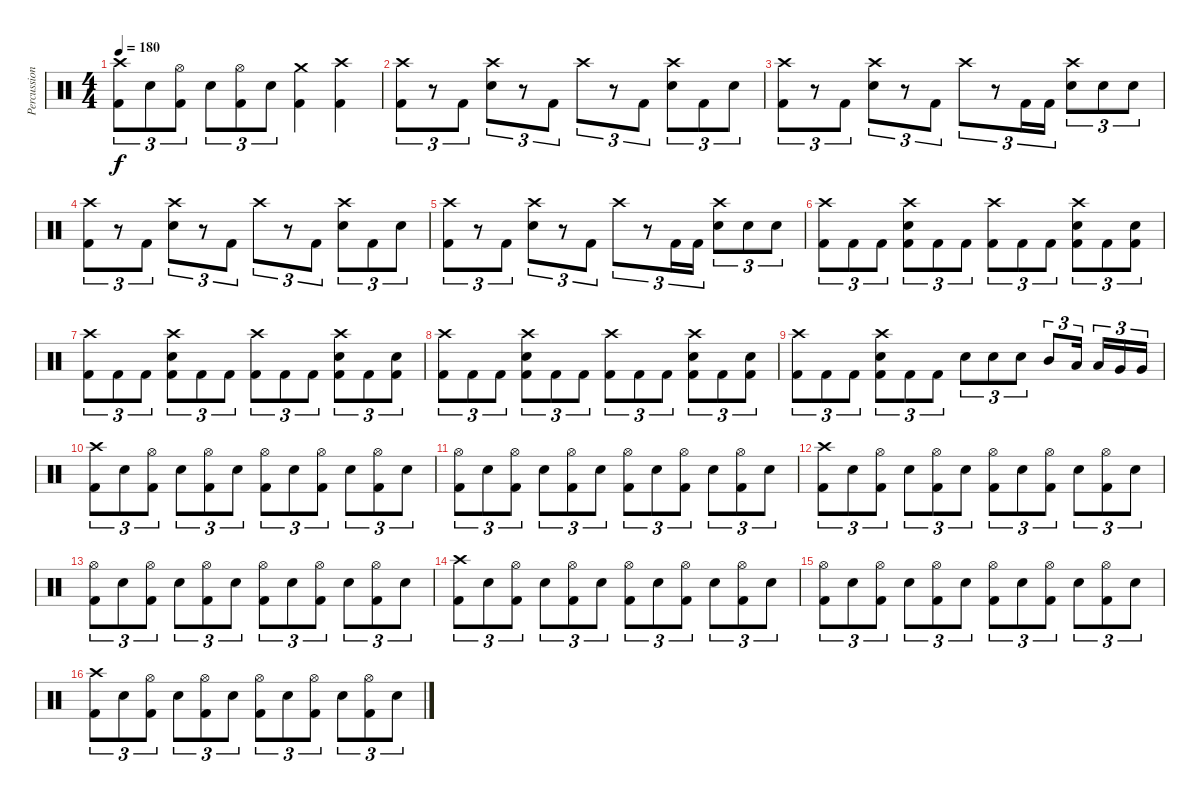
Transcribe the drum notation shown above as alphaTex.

\track ("Percussion" "Percussion") {instrument percussion}
\staff {score}
\articulation defaults
\ts (4 4)
\tempo 180
\clef neutral
\ks c
("Crash high (hit)" "Kick (hit) 2").8{tu (3 2) dy f} "Electric Snare (hit)".8{tu (3 2)} ("Hi-Hat (open)" "Kick (hit) 2").8{tu (3 2)} "Electric Snare (hit)".8{tu (3 2)} ("Hi-Hat (open)" "Kick (hit) 2").8{tu (3 2)} "Electric Snare (hit)".8{tu (3 2)} ("Crash medium (hit)" "Kick (hit) 2").4 ("Crash high (hit)" "Kick (hit) 2").4 |
("Crash high (hit)" "Kick (hit) 2").8{tu (3 2)} r.8{tu (3 2)} "Kick (hit) 2".8{tu (3 2)} ("Crash high (hit)" "Electric Snare (hit)").8{tu (3 2)} r.8{tu (3 2)} "Kick (hit) 2".8{tu (3 2)} "Crash high (hit)".8{tu (3 2)} r.8{tu (3 2)} "Kick (hit) 2".8{tu (3 2)} ("Crash high (hit)" "Electric Snare (hit)").8{tu (3 2)} "Kick (hit) 2".8{tu (3 2)} "Electric Snare (hit)".8{tu (3 2)} |
("Crash high (hit)" "Kick (hit) 2").8{tu (3 2)} r.8{tu (3 2)} "Kick (hit) 2".8{tu (3 2)} ("Crash high (hit)" "Electric Snare (hit)").8{tu (3 2)} r.8{tu (3 2)} "Kick (hit) 2".8{tu (3 2)} "Crash high (hit)".8{tu (3 2)} r.8{tu (3 2)} "Kick (hit) 2".16{tu (3 2)} "Kick (hit) 2".16{tu (3 2)} ("Crash high (hit)" "Electric Snare (hit)").8{tu (3 2)} "Electric Snare (hit)".8{tu (3 2)} "Electric Snare (hit)".8{tu (3 2)} |
("Crash high (hit)" "Kick (hit) 2").8{tu (3 2)} r.8{tu (3 2)} "Kick (hit) 2".8{tu (3 2)} ("Crash high (hit)" "Electric Snare (hit)").8{tu (3 2)} r.8{tu (3 2)} "Kick (hit) 2".8{tu (3 2)} "Crash high (hit)".8{tu (3 2)} r.8{tu (3 2)} "Kick (hit) 2".8{tu (3 2)} ("Crash high (hit)" "Electric Snare (hit)").8{tu (3 2)} "Kick (hit) 2".8{tu (3 2)} "Electric Snare (hit)".8{tu (3 2)} |
("Crash high (hit)" "Kick (hit) 2").8{tu (3 2)} r.8{tu (3 2)} "Kick (hit) 2".8{tu (3 2)} ("Crash high (hit)" "Electric Snare (hit)").8{tu (3 2)} r.8{tu (3 2)} "Kick (hit) 2".8{tu (3 2)} "Crash high (hit)".8{tu (3 2)} r.8{tu (3 2)} "Kick (hit) 2".16{tu (3 2)} "Kick (hit) 2".16{tu (3 2)} ("Crash high (hit)" "Electric Snare (hit)").8{tu (3 2)} "Electric Snare (hit)".8{tu (3 2)} "Electric Snare (hit)".8{tu (3 2)} |
("Crash high (hit)" "Kick (hit) 2").8{tu (3 2)} "Kick (hit) 2".8{tu (3 2)} "Kick (hit) 2".8{tu (3 2)} ("Crash high (hit)" "Electric Snare (hit)" "Kick (hit) 2").8{tu (3 2)} "Kick (hit) 2".8{tu (3 2)} "Kick (hit) 2".8{tu (3 2)} ("Crash high (hit)" "Kick (hit) 2").8{tu (3 2)} "Kick (hit) 2".8{tu (3 2)} "Kick (hit) 2".8{tu (3 2)} ("Crash high (hit)" "Electric Snare (hit)" "Kick (hit) 2").8{tu (3 2)} "Kick (hit) 2".8{tu (3 2)} ("Electric Snare (hit)" "Kick (hit) 2").8{tu (3 2)} |
("Crash high (hit)" "Kick (hit) 2").8{tu (3 2)} "Kick (hit) 2".8{tu (3 2)} "Kick (hit) 2".8{tu (3 2)} ("Crash high (hit)" "Electric Snare (hit)" "Kick (hit) 2").8{tu (3 2)} "Kick (hit) 2".8{tu (3 2)} "Kick (hit) 2".8{tu (3 2)} ("Crash high (hit)" "Kick (hit) 2").8{tu (3 2)} "Kick (hit) 2".8{tu (3 2)} "Kick (hit) 2".8{tu (3 2)} ("Crash high (hit)" "Electric Snare (hit)" "Kick (hit) 2").8{tu (3 2)} "Kick (hit) 2".8{tu (3 2)} ("Electric Snare (hit)" "Kick (hit) 2").8{tu (3 2)} |
("Crash high (hit)" "Kick (hit) 2").8{tu (3 2)} "Kick (hit) 2".8{tu (3 2)} "Kick (hit) 2".8{tu (3 2)} ("Crash high (hit)" "Electric Snare (hit)" "Kick (hit) 2").8{tu (3 2)} "Kick (hit) 2".8{tu (3 2)} "Kick (hit) 2".8{tu (3 2)} ("Crash high (hit)" "Kick (hit) 2").8{tu (3 2)} "Kick (hit) 2".8{tu (3 2)} "Kick (hit) 2".8{tu (3 2)} ("Crash high (hit)" "Electric Snare (hit)" "Kick (hit) 2").8{tu (3 2)} "Kick (hit) 2".8{tu (3 2)} ("Electric Snare (hit)" "Kick (hit) 2").8{tu (3 2)} |
("Crash high (hit)" "Kick (hit) 2").8{tu (3 2)} "Kick (hit) 2".8{tu (3 2)} "Kick (hit) 2".8{tu (3 2)} ("Crash high (hit)" "Electric Snare (hit)" "Kick (hit) 2").8{tu (3 2)} "Kick (hit) 2".8{tu (3 2)} "Kick (hit) 2".8{tu (3 2)} "Electric Snare (hit)".8{tu (3 2)} "Electric Snare (hit)".8{tu (3 2)} "Electric Snare (hit)".8{tu (3 2)} "Mid Tom (hit)".8{tu (3 2)} "Low Tom (hit)".16{tu (3 2)} "Low Tom (hit)".16{tu (3 2)} "Very Low Tom (hit)".16{tu (3 2)} "Very Low Tom (hit)".16{tu (3 2)} |
("Crash high (hit)" "Kick (hit) 2").8{tu (3 2)} "Electric Snare (hit)".8{tu (3 2)} ("Hi-Hat (open)" "Kick (hit) 2").8{tu (3 2)} "Electric Snare (hit)".8{tu (3 2)} ("Hi-Hat (open)" "Kick (hit) 2").8{tu (3 2)} "Electric Snare (hit)".8{tu (3 2)} ("Hi-Hat (open)" "Kick (hit) 2").8{tu (3 2)} "Electric Snare (hit)".8{tu (3 2)} ("Hi-Hat (open)" "Kick (hit) 2").8{tu (3 2)} "Electric Snare (hit)".8{tu (3 2)} ("Hi-Hat (open)" "Kick (hit) 2").8{tu (3 2)} "Electric Snare (hit)".8{tu (3 2)} |
("Hi-Hat (open)" "Kick (hit) 2").8{tu (3 2)} "Electric Snare (hit)".8{tu (3 2)} ("Hi-Hat (open)" "Kick (hit) 2").8{tu (3 2)} "Electric Snare (hit)".8{tu (3 2)} ("Hi-Hat (open)" "Kick (hit) 2").8{tu (3 2)} "Electric Snare (hit)".8{tu (3 2)} ("Hi-Hat (open)" "Kick (hit) 2").8{tu (3 2)} "Electric Snare (hit)".8{tu (3 2)} ("Hi-Hat (open)" "Kick (hit) 2").8{tu (3 2)} "Electric Snare (hit)".8{tu (3 2)} ("Hi-Hat (open)" "Kick (hit) 2").8{tu (3 2)} "Electric Snare (hit)".8{tu (3 2)} |
("Crash high (hit)" "Kick (hit) 2").8{tu (3 2)} "Electric Snare (hit)".8{tu (3 2)} ("Hi-Hat (open)" "Kick (hit) 2").8{tu (3 2)} "Electric Snare (hit)".8{tu (3 2)} ("Hi-Hat (open)" "Kick (hit) 2").8{tu (3 2)} "Electric Snare (hit)".8{tu (3 2)} ("Hi-Hat (open)" "Kick (hit) 2").8{tu (3 2)} "Electric Snare (hit)".8{tu (3 2)} ("Hi-Hat (open)" "Kick (hit) 2").8{tu (3 2)} "Electric Snare (hit)".8{tu (3 2)} ("Hi-Hat (open)" "Kick (hit) 2").8{tu (3 2)} "Electric Snare (hit)".8{tu (3 2)} |
("Hi-Hat (open)" "Kick (hit) 2").8{tu (3 2)} "Electric Snare (hit)".8{tu (3 2)} ("Hi-Hat (open)" "Kick (hit) 2").8{tu (3 2)} "Electric Snare (hit)".8{tu (3 2)} ("Hi-Hat (open)" "Kick (hit) 2").8{tu (3 2)} "Electric Snare (hit)".8{tu (3 2)} ("Hi-Hat (open)" "Kick (hit) 2").8{tu (3 2)} "Electric Snare (hit)".8{tu (3 2)} ("Hi-Hat (open)" "Kick (hit) 2").8{tu (3 2)} "Electric Snare (hit)".8{tu (3 2)} ("Hi-Hat (open)" "Kick (hit) 2").8{tu (3 2)} "Electric Snare (hit)".8{tu (3 2)} |
("Crash high (hit)" "Kick (hit) 2").8{tu (3 2)} "Electric Snare (hit)".8{tu (3 2)} ("Hi-Hat (open)" "Kick (hit) 2").8{tu (3 2)} "Electric Snare (hit)".8{tu (3 2)} ("Hi-Hat (open)" "Kick (hit) 2").8{tu (3 2)} "Electric Snare (hit)".8{tu (3 2)} ("Hi-Hat (open)" "Kick (hit) 2").8{tu (3 2)} "Electric Snare (hit)".8{tu (3 2)} ("Hi-Hat (open)" "Kick (hit) 2").8{tu (3 2)} "Electric Snare (hit)".8{tu (3 2)} ("Hi-Hat (open)" "Kick (hit) 2").8{tu (3 2)} "Electric Snare (hit)".8{tu (3 2)} |
("Hi-Hat (open)" "Kick (hit) 2").8{tu (3 2)} "Electric Snare (hit)".8{tu (3 2)} ("Hi-Hat (open)" "Kick (hit) 2").8{tu (3 2)} "Electric Snare (hit)".8{tu (3 2)} ("Hi-Hat (open)" "Kick (hit) 2").8{tu (3 2)} "Electric Snare (hit)".8{tu (3 2)} ("Hi-Hat (open)" "Kick (hit) 2").8{tu (3 2)} "Electric Snare (hit)".8{tu (3 2)} ("Hi-Hat (open)" "Kick (hit) 2").8{tu (3 2)} "Electric Snare (hit)".8{tu (3 2)} ("Hi-Hat (open)" "Kick (hit) 2").8{tu (3 2)} "Electric Snare (hit)".8{tu (3 2)} |
("Crash high (hit)" "Kick (hit) 2").8{tu (3 2)} "Electric Snare (hit)".8{tu (3 2)} ("Hi-Hat (open)" "Kick (hit) 2").8{tu (3 2)} "Electric Snare (hit)".8{tu (3 2)} ("Hi-Hat (open)" "Kick (hit) 2").8{tu (3 2)} "Electric Snare (hit)".8{tu (3 2)} ("Hi-Hat (open)" "Kick (hit) 2").8{tu (3 2)} "Electric Snare (hit)".8{tu (3 2)} ("Hi-Hat (open)" "Kick (hit) 2").8{tu (3 2)} "Electric Snare (hit)".8{tu (3 2)} ("Hi-Hat (open)" "Kick (hit) 2").8{tu (3 2)} "Electric Snare (hit)".8{tu (3 2)}
